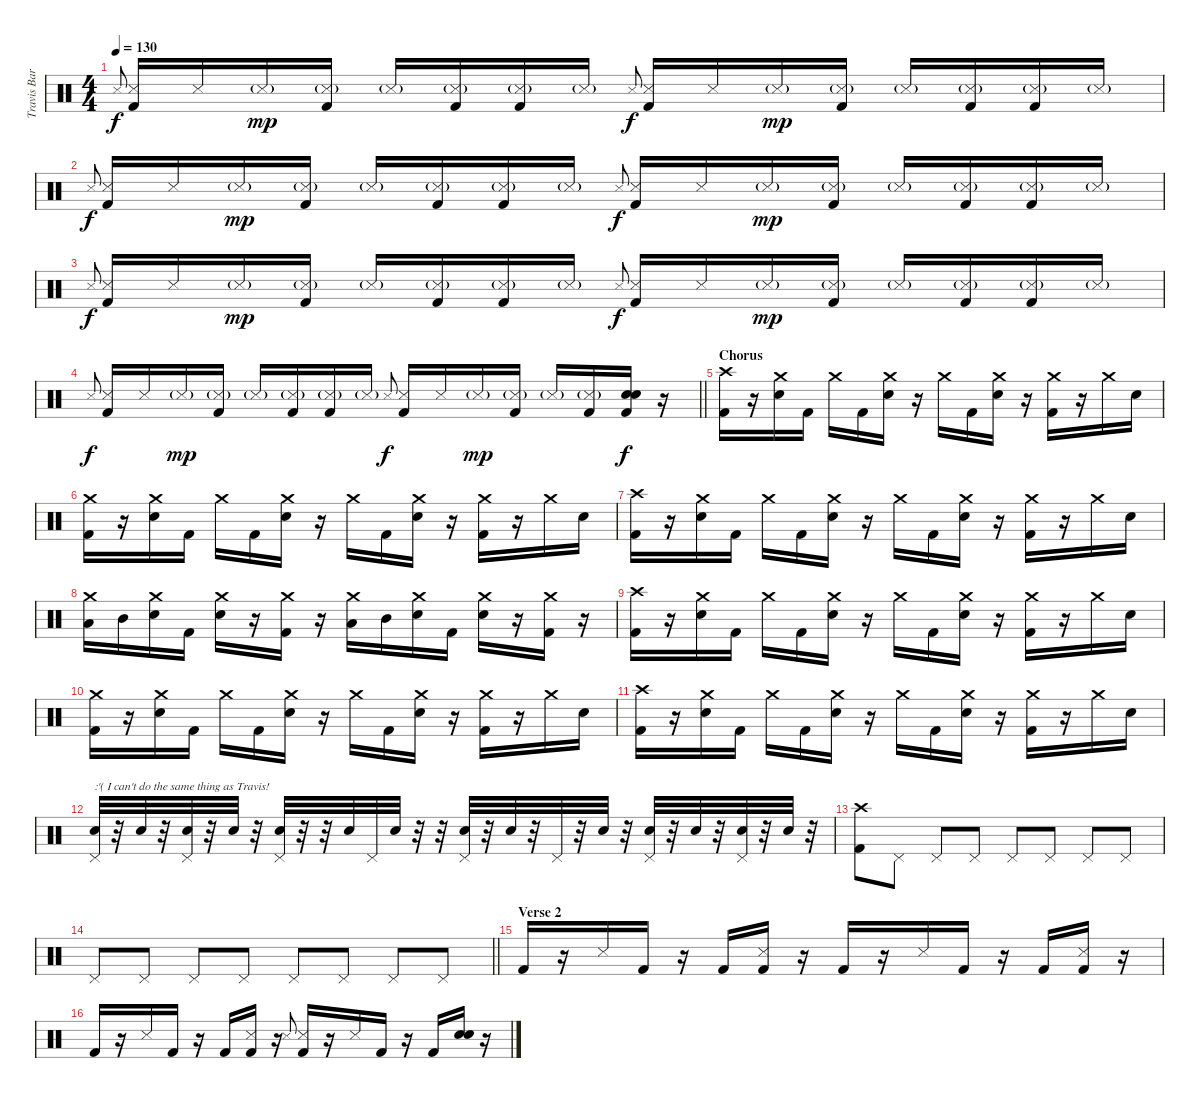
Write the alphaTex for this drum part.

\track ("Travis Barker [Drums]" "Travis Bar") {instrument percussion}
\staff {score}
\articulation defaults
\ts (4 4)
\tempo 130
\clef neutral
\ks c "Snare (side stick) 3".8{gr onbeat dy f}
("Snare (side stick) 3" "Kick (hit) 2").16 "Snare (side stick) 3".16 "Snare (side stick) 3"{g}.16{dy mp} ("Snare (side stick) 3"{g} "Kick (hit) 2").16 "Snare (side stick) 3"{g}.16 ("Snare (side stick) 3"{g} "Kick (hit) 2").16 ("Snare (side stick) 3"{g} "Kick (hit) 2").16 "Snare (side stick) 3"{g}.16 "Snare (side stick) 3".8{gr onbeat dy f} ("Snare (side stick) 3" "Kick (hit) 2").16 "Snare (side stick) 3".16 "Snare (side stick) 3"{g}.16{dy mp} ("Snare (side stick) 3"{g} "Kick (hit) 2").16 "Snare (side stick) 3"{g}.16 ("Snare (side stick) 3"{g} "Kick (hit) 2").16 ("Snare (side stick) 3"{g} "Kick (hit) 2").16 "Snare (side stick) 3"{g}.16 |
"Snare (side stick) 3".8{gr onbeat dy f} ("Snare (side stick) 3" "Kick (hit) 2").16 "Snare (side stick) 3".16 "Snare (side stick) 3"{g}.16{dy mp} ("Snare (side stick) 3"{g} "Kick (hit) 2").16 "Snare (side stick) 3"{g}.16 ("Snare (side stick) 3"{g} "Kick (hit) 2").16 ("Snare (side stick) 3"{g} "Kick (hit) 2").16 "Snare (side stick) 3"{g}.16 "Snare (side stick) 3".8{gr onbeat dy f} ("Snare (side stick) 3" "Kick (hit) 2").16 "Snare (side stick) 3".16 "Snare (side stick) 3"{g}.16{dy mp} ("Snare (side stick) 3"{g} "Kick (hit) 2").16 "Snare (side stick) 3"{g}.16 ("Snare (side stick) 3"{g} "Kick (hit) 2").16 ("Snare (side stick) 3"{g} "Kick (hit) 2").16 "Snare (side stick) 3"{g}.16 |
"Snare (side stick) 3".8{gr onbeat dy f} ("Snare (side stick) 3" "Kick (hit) 2").16 "Snare (side stick) 3".16 "Snare (side stick) 3"{g}.16{dy mp} ("Snare (side stick) 3"{g} "Kick (hit) 2").16 "Snare (side stick) 3"{g}.16 ("Snare (side stick) 3"{g} "Kick (hit) 2").16 ("Snare (side stick) 3"{g} "Kick (hit) 2").16 "Snare (side stick) 3"{g}.16 "Snare (side stick) 3".8{gr onbeat dy f} ("Snare (side stick) 3" "Kick (hit) 2").16 "Snare (side stick) 3".16 "Snare (side stick) 3"{g}.16{dy mp} ("Snare (side stick) 3"{g} "Kick (hit) 2").16 "Snare (side stick) 3"{g}.16 ("Snare (side stick) 3"{g} "Kick (hit) 2").16 ("Snare (side stick) 3"{g} "Kick (hit) 2").16 "Snare (side stick) 3"{g}.16 |
\barLineRight lightlight "Snare (side stick) 3".8{gr onbeat dy f}
("Snare (side stick) 3" "Kick (hit) 2").16 "Snare (side stick) 3".16 "Snare (side stick) 3"{g}.16{dy mp} ("Snare (side stick) 3"{g} "Kick (hit) 2").16 "Snare (side stick) 3"{g}.16 ("Snare (side stick) 3"{g} "Kick (hit) 2").16 ("Snare (side stick) 3"{g} "Kick (hit) 2").16 "Snare (side stick) 3"{g}.16 "Snare (side stick) 3".8{gr onbeat dy f} ("Snare (side stick) 3" "Kick (hit) 2").16 "Snare (side stick) 3".16 "Snare (side stick) 3"{g}.16{dy mp} ("Snare (side stick) 3"{g} "Kick (hit) 2").16 "Snare (side stick) 3"{g}.16 ("Snare (side stick) 3"{g} "Kick (hit) 2").16 ("Electric Snare (hit)" "Electric Snare (hit)" "Kick (hit) 2").16{dy f} r.16 |
\section ("" "Chorus")
("Crash high (hit)" "Kick (hit) 2").16 r.16 ("Crash medium (hit)" "Electric Snare (hit)").16 "Kick (hit) 2".16 "Crash medium (hit)".16 "Kick (hit) 2".16 ("Crash medium (hit)" "Electric Snare (hit)").16 r.16 "Crash medium (hit)".16 "Kick (hit) 2".16 ("Crash medium (hit)" "Electric Snare (hit)").16 r.16 ("Crash medium (hit)" "Kick (hit) 2").16 r.16 "Crash medium (hit)".16 "Electric Snare (hit)".16 |
("Crash medium (hit)" "Kick (hit) 2").16 r.16 ("Crash medium (hit)" "Electric Snare (hit)").16 "Kick (hit) 2".16 "Crash medium (hit)".16 "Kick (hit) 2".16 ("Crash medium (hit)" "Electric Snare (hit)").16 r.16 "Crash medium (hit)".16 "Kick (hit) 2".16 ("Crash medium (hit)" "Electric Snare (hit)").16 r.16 ("Crash medium (hit)" "Kick (hit) 2").16 r.16 "Crash medium (hit)".16 "Electric Snare (hit)".16 |
("Crash high (hit)" "Kick (hit) 2").16 r.16 ("Crash medium (hit)" "Electric Snare (hit)").16 "Kick (hit) 2".16 "Crash medium (hit)".16 "Kick (hit) 2".16 ("Crash medium (hit)" "Electric Snare (hit)").16 r.16 "Crash medium (hit)".16 "Kick (hit) 2".16 ("Crash medium (hit)" "Electric Snare (hit)").16 r.16 ("Crash medium (hit)" "Kick (hit) 2").16 r.16 "Crash medium (hit)".16 "Electric Snare (hit)".16 |
("Crash medium (hit)" "Low Tom (hit)").16 "Mid Tom (hit)".16 ("Crash medium (hit)" "Electric Snare (hit)").16 "Kick (hit) 2".16 ("Crash medium (hit)" "Electric Snare (hit)").16 r.16 ("Crash medium (hit)" "Kick (hit) 2").16 r.16 ("Crash medium (hit)" "Low Tom (hit)").16 "Mid Tom (hit)".16 ("Crash medium (hit)" "Electric Snare (hit)").16 "Kick (hit) 2".16 ("Crash medium (hit)" "Electric Snare (hit)").16 r.16 ("Crash medium (hit)" "Kick (hit) 2").16 r.16 |
("Crash high (hit)" "Kick (hit) 2").16 r.16 ("Crash medium (hit)" "Electric Snare (hit)").16 "Kick (hit) 2".16 "Crash medium (hit)".16 "Kick (hit) 2".16 ("Crash medium (hit)" "Electric Snare (hit)").16 r.16 "Crash medium (hit)".16 "Kick (hit) 2".16 ("Crash medium (hit)" "Electric Snare (hit)").16 r.16 ("Crash medium (hit)" "Kick (hit) 2").16 r.16 "Crash medium (hit)".16 "Electric Snare (hit)".16 |
("Crash medium (hit)" "Kick (hit) 2").16 r.16 ("Crash medium (hit)" "Electric Snare (hit)").16 "Kick (hit) 2".16 "Crash medium (hit)".16 "Kick (hit) 2".16 ("Crash medium (hit)" "Electric Snare (hit)").16 r.16 "Crash medium (hit)".16 "Kick (hit) 2".16 ("Crash medium (hit)" "Electric Snare (hit)").16 r.16 ("Crash medium (hit)" "Kick (hit) 2").16 r.16 "Crash medium (hit)".16 "Electric Snare (hit)".16 |
("Crash high (hit)" "Kick (hit) 2").16 r.16 ("Crash medium (hit)" "Electric Snare (hit)").16 "Kick (hit) 2".16 "Crash medium (hit)".16 "Kick (hit) 2".16 ("Crash medium (hit)" "Electric Snare (hit)").16 r.16 "Crash medium (hit)".16 "Kick (hit) 2".16 ("Crash medium (hit)" "Electric Snare (hit)").16 r.16 ("Crash medium (hit)" "Kick (hit) 2").16 r.16 "Crash medium (hit)".16 "Electric Snare (hit)".16 |
("Pedal Hi-Hat (hit)" "Electric Snare (hit)").32{txt ":'( I can't do the same thing as Travis!"} r.32 "Electric Snare (hit)".32 r.32 ("Pedal Hi-Hat (hit)" "Electric Snare (hit)").32 r.32 "Electric Snare (hit)".32 r.32 ("Pedal Hi-Hat (hit)" "Electric Snare (hit)").32 r.32 r.32 "Electric Snare (hit)".32 "Pedal Hi-Hat (hit)".32 "Electric Snare (hit)".32 r.32 r.32 ("Pedal Hi-Hat (hit)" "Electric Snare (hit)").32 r.32 "Electric Snare (hit)".32 r.32 "Pedal Hi-Hat (hit)".32 r.32 "Electric Snare (hit)".32 r.32 ("Pedal Hi-Hat (hit)" "Electric Snare (hit)").32 r.32 "Electric Snare (hit)".32 r.32 ("Pedal Hi-Hat (hit)" "Electric Snare (hit)").32 r.32 "Electric Snare (hit)".32 r.32 |
("Crash high (hit)" "Kick (hit) 2").8 "Pedal Hi-Hat (hit)".8 "Pedal Hi-Hat (hit)".8 "Pedal Hi-Hat (hit)".8 "Pedal Hi-Hat (hit)".8 "Pedal Hi-Hat (hit)".8 "Pedal Hi-Hat (hit)".8 "Pedal Hi-Hat (hit)".8 |
\barLineRight lightlight "Pedal Hi-Hat (hit)".8 "Pedal Hi-Hat (hit)".8 "Pedal Hi-Hat (hit)".8 "Pedal Hi-Hat (hit)".8 "Pedal Hi-Hat (hit)".8 "Pedal Hi-Hat (hit)".8 "Pedal Hi-Hat (hit)".8 "Pedal Hi-Hat (hit)".8
|
\section ("" "Verse 2")
"Kick (hit) 2".16 r.16 "Snare (side stick) 3".16 "Kick (hit) 2".16 r.16 "Kick (hit) 2".16 ("Snare (side stick) 3" "Kick (hit) 2").16 r.16 "Kick (hit) 2".16 r.16 "Snare (side stick) 3".16 "Kick (hit) 2".16 r.16 "Kick (hit) 2".16 ("Snare (side stick) 3" "Kick (hit) 2").16 r.16 |
"Kick (hit) 2".16 r.16 "Snare (side stick) 3".16 "Kick (hit) 2".16 r.16 "Kick (hit) 2".16 ("Snare (side stick) 3" "Kick (hit) 2").16 r.16 "Snare (side stick) 3"{x}.8{gr onbeat} ("Snare (side stick) 3" "Kick (hit) 2").16 r.16 "Snare (side stick) 3".16 "Kick (hit) 2".16 r.16 "Kick (hit) 2".16 ("Electric Snare (hit)" "Electric Snare (hit)").16 r.16
